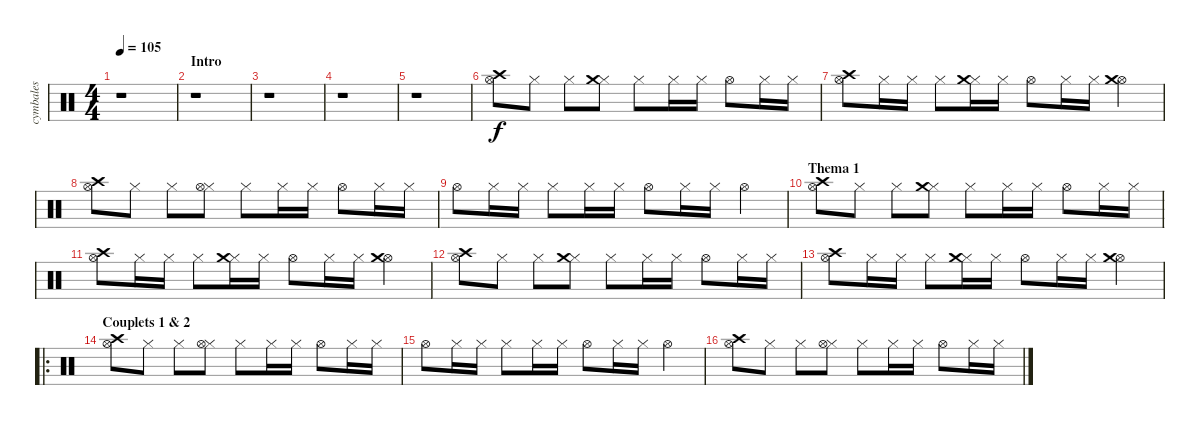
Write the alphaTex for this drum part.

\track ("cymbales" "cymbales") {instrument percussion}
\staff {score}
\articulation defaults
\ts (4 4)
\tempo 105
\clef neutral
\ks c
r.1{dy f} |
\section ("" "Intro")
r.1 |
r.1 |
r.1 |
r.1 |
("Hi-Hat (open)" "Crash high (hit)").8 "Hi-Hat (closed)".8 "Hi-Hat (closed)".8 ("Hi-Hat (closed)" "Crash medium (hit)").8 "Hi-Hat (closed)".8 "Hi-Hat (closed)".16 "Hi-Hat (closed)".16 "Hi-Hat (open)".8 "Hi-Hat (closed)".16 "Hi-Hat (closed)".16 |
("Hi-Hat (open)" "Crash high (hit)").8 "Hi-Hat (closed)".16 "Hi-Hat (closed)".16 "Hi-Hat (closed)".8 ("Hi-Hat (closed)" "Crash medium (hit)").16 "Hi-Hat (closed)".16 "Hi-Hat (open)".8 "Hi-Hat (closed)".16 "Hi-Hat (closed)".16 ("Hi-Hat (open)" "Crash medium (hit)").4 |
("Hi-Hat (open)" "Crash high (hit)").8 "Hi-Hat (closed)".8 "Hi-Hat (closed)".8 ("Hi-Hat (closed)" "Hi-Hat (open)").8 "Hi-Hat (closed)".8 "Hi-Hat (closed)".16 "Hi-Hat (closed)".16 "Hi-Hat (open)".8 "Hi-Hat (closed)".16 "Hi-Hat (closed)".16 |
"Hi-Hat (open)".8 "Hi-Hat (closed)".16 "Hi-Hat (closed)".16 "Hi-Hat (closed)".8 "Hi-Hat (closed)".16 "Hi-Hat (closed)".16 "Hi-Hat (open)".8 "Hi-Hat (closed)".16 "Hi-Hat (closed)".16 "Hi-Hat (open)".4 |
\section ("" "Thema 1")
("Hi-Hat (open)" "Crash high (hit)").8 "Hi-Hat (closed)".8 "Hi-Hat (closed)".8 ("Hi-Hat (closed)" "Crash medium (hit)").8 "Hi-Hat (closed)".8 "Hi-Hat (closed)".16 "Hi-Hat (closed)".16 "Hi-Hat (open)".8 "Hi-Hat (closed)".16 "Hi-Hat (closed)".16 |
("Hi-Hat (open)" "Crash high (hit)").8 "Hi-Hat (closed)".16 "Hi-Hat (closed)".16 "Hi-Hat (closed)".8 ("Hi-Hat (closed)" "Crash medium (hit)").16 "Hi-Hat (closed)".16 "Hi-Hat (open)".8 "Hi-Hat (closed)".16 "Hi-Hat (closed)".16 ("Hi-Hat (open)" "Crash medium (hit)").4 |
("Hi-Hat (open)" "Crash high (hit)").8 "Hi-Hat (closed)".8 "Hi-Hat (closed)".8 ("Hi-Hat (closed)" "Crash medium (hit)").8 "Hi-Hat (closed)".8 "Hi-Hat (closed)".16 "Hi-Hat (closed)".16 "Hi-Hat (open)".8 "Hi-Hat (closed)".16 "Hi-Hat (closed)".16 |
("Hi-Hat (open)" "Crash high (hit)").8 "Hi-Hat (closed)".16 "Hi-Hat (closed)".16 "Hi-Hat (closed)".8 ("Hi-Hat (closed)" "Crash medium (hit)").16 "Hi-Hat (closed)".16 "Hi-Hat (open)".8 "Hi-Hat (closed)".16 "Hi-Hat (closed)".16 ("Hi-Hat (open)" "Crash medium (hit)").4 |
\ro
\section ("" "Couplets 1 & 2")
("Hi-Hat (open)" "Crash high (hit)").8 "Hi-Hat (closed)".8 "Hi-Hat (closed)".8 ("Hi-Hat (closed)" "Hi-Hat (open)").8 "Hi-Hat (closed)".8 "Hi-Hat (closed)".16 "Hi-Hat (closed)".16 "Hi-Hat (open)".8 "Hi-Hat (closed)".16 "Hi-Hat (closed)".16 |
"Hi-Hat (open)".8 "Hi-Hat (closed)".16 "Hi-Hat (closed)".16 "Hi-Hat (closed)".8 "Hi-Hat (closed)".16 "Hi-Hat (closed)".16 "Hi-Hat (open)".8 "Hi-Hat (closed)".16 "Hi-Hat (closed)".16 "Hi-Hat (open)".4 |
("Hi-Hat (open)" "Crash high (hit)").8 "Hi-Hat (closed)".8 "Hi-Hat (closed)".8 ("Hi-Hat (closed)" "Hi-Hat (open)").8 "Hi-Hat (closed)".8 "Hi-Hat (closed)".16 "Hi-Hat (closed)".16 "Hi-Hat (open)".8 "Hi-Hat (closed)".16 "Hi-Hat (closed)".16
